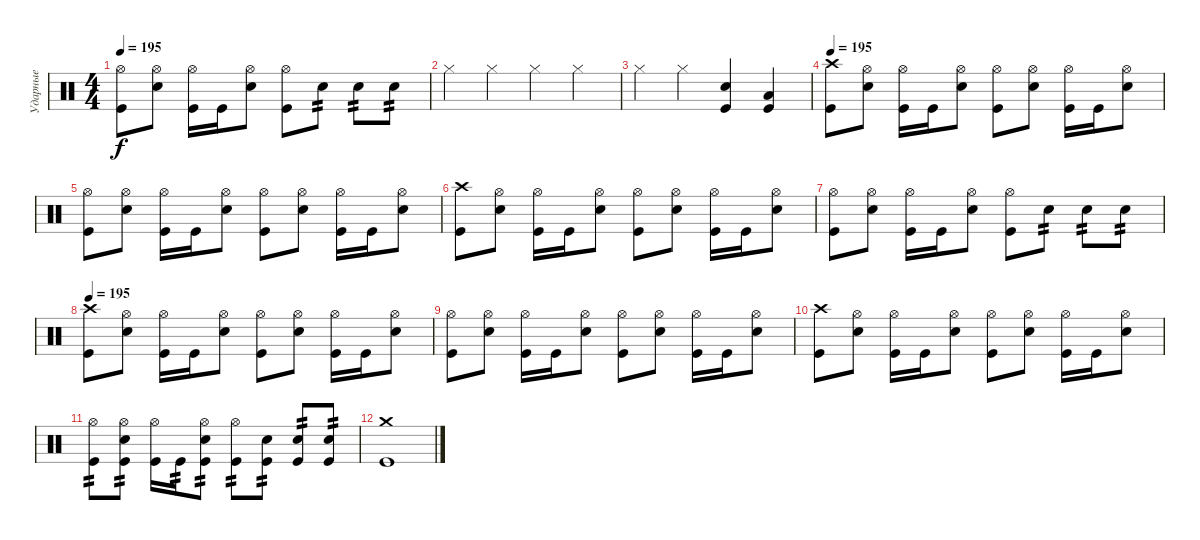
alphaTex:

\track ("Ударные" "Ударные") {instrument percussion}
\staff {score}
\articulation defaults
\ts (4 4)
\tempo 195
\clef neutral
\ks c
("Kick (hit)" "Hi-Hat (open)").8{dy f} ("Electric Snare (hit)" "Hi-Hat (open)").8 ("Kick (hit)" "Hi-Hat (open)").16 "Kick (hit)".16 ("Electric Snare (hit)" "Hi-Hat (open)").8 ("Kick (hit)" "Hi-Hat (open)").8 "Electric Snare (hit)".8{tp 2} "Electric Snare (hit)".8{tp 2} "Electric Snare (hit)".8{tp 2} |
"Hi-Hat (closed)".4 "Hi-Hat (closed)".4 "Hi-Hat (closed)".4 "Hi-Hat (closed)".4 |
"Hi-Hat (closed)".4 "Hi-Hat (closed)".4 ("Kick (hit)" "Electric Snare (hit)").4 ("Kick (hit)" "Low Tom (hit)").4 |
\tempo 195
("Kick (hit)" "Crash high (hit)").8 ("Electric Snare (hit)" "Hi-Hat (open)").8 ("Kick (hit)" "Hi-Hat (open)").16 "Kick (hit)".16 ("Electric Snare (hit)" "Hi-Hat (open)").8 ("Kick (hit)" "Hi-Hat (open)").8 ("Electric Snare (hit)" "Hi-Hat (open)").8 ("Kick (hit)" "Hi-Hat (open)").16 "Kick (hit)".16 ("Electric Snare (hit)" "Hi-Hat (open)").8 |
("Kick (hit)" "Hi-Hat (open)").8 ("Electric Snare (hit)" "Hi-Hat (open)").8 ("Kick (hit)" "Hi-Hat (open)").16 "Kick (hit)".16 ("Electric Snare (hit)" "Hi-Hat (open)").8 ("Kick (hit)" "Hi-Hat (open)").8 ("Electric Snare (hit)" "Hi-Hat (open)").8 ("Kick (hit)" "Hi-Hat (open)").16 "Kick (hit)".16 ("Electric Snare (hit)" "Hi-Hat (open)").8 |
("Kick (hit)" "Crash high (hit)").8 ("Electric Snare (hit)" "Hi-Hat (open)").8 ("Kick (hit)" "Hi-Hat (open)").16 "Kick (hit)".16 ("Electric Snare (hit)" "Hi-Hat (open)").8 ("Kick (hit)" "Hi-Hat (open)").8 ("Electric Snare (hit)" "Hi-Hat (open)").8 ("Kick (hit)" "Hi-Hat (open)").16 "Kick (hit)".16 ("Electric Snare (hit)" "Hi-Hat (open)").8 |
("Kick (hit)" "Hi-Hat (open)").8 ("Electric Snare (hit)" "Hi-Hat (open)").8 ("Kick (hit)" "Hi-Hat (open)").16 "Kick (hit)".16 ("Electric Snare (hit)" "Hi-Hat (open)").8 ("Kick (hit)" "Hi-Hat (open)").8 "Electric Snare (hit)".8{tp 2} "Electric Snare (hit)".8{tp 2} "Electric Snare (hit)".8{tp 2} |
\tempo 195
("Kick (hit)" "Crash high (hit)").8 ("Electric Snare (hit)" "Hi-Hat (open)").8 ("Kick (hit)" "Hi-Hat (open)").16 "Kick (hit)".16 ("Electric Snare (hit)" "Hi-Hat (open)").8 ("Kick (hit)" "Hi-Hat (open)").8 ("Electric Snare (hit)" "Hi-Hat (open)").8 ("Kick (hit)" "Hi-Hat (open)").16 "Kick (hit)".16 ("Electric Snare (hit)" "Hi-Hat (open)").8 |
("Kick (hit)" "Hi-Hat (open)").8 ("Electric Snare (hit)" "Hi-Hat (open)").8 ("Kick (hit)" "Hi-Hat (open)").16 "Kick (hit)".16 ("Electric Snare (hit)" "Hi-Hat (open)").8 ("Kick (hit)" "Hi-Hat (open)").8 ("Electric Snare (hit)" "Hi-Hat (open)").8 ("Kick (hit)" "Hi-Hat (open)").16 "Kick (hit)".16 ("Electric Snare (hit)" "Hi-Hat (open)").8 |
("Kick (hit)" "Crash high (hit)").8 ("Electric Snare (hit)" "Hi-Hat (open)").8 ("Kick (hit)" "Hi-Hat (open)").16 "Kick (hit)".16 ("Electric Snare (hit)" "Hi-Hat (open)").8 ("Kick (hit)" "Hi-Hat (open)").8 ("Electric Snare (hit)" "Hi-Hat (open)").8 ("Kick (hit)" "Hi-Hat (open)").16 "Kick (hit)".16 ("Electric Snare (hit)" "Hi-Hat (open)").8 |
("Kick (hit)" "Hi-Hat (open)").8{tp 2} ("Electric Snare (hit)" "Kick (hit)" "Hi-Hat (open)").8{tp 2} ("Kick (hit)" "Hi-Hat (open)").16 "Kick (hit)".16{tp 2} ("Electric Snare (hit)" "Kick (hit)" "Hi-Hat (open)").8{tp 2} ("Kick (hit)" "Hi-Hat (open)").8{tp 2} ("Electric Snare (hit)" "Kick (hit)").8{tp 2} ("Electric Snare (hit)" "Kick (hit)").8{tp 2} ("Electric Snare (hit)" "Kick (hit)").8{tp 2} |
("Crash medium (hit)" "Kick (hit)").1
